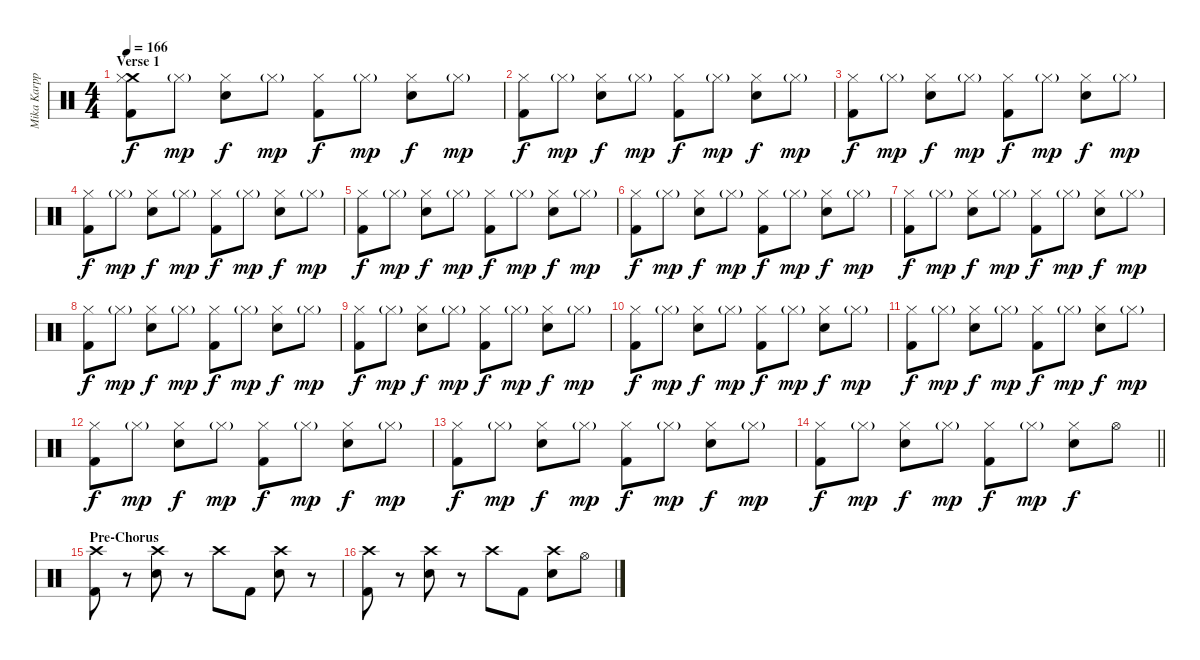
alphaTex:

\track ("Mika Karppinen" "Mika Karpp") {instrument percussion}
\staff {score}
\articulation defaults
\ts (4 4)
\section ("" "Verse 1")
\tempo 166
\clef neutral
\ks c
("Crash medium (hit)" "Hi-Hat (closed)" "Kick (hit) 2").8{dy f} "Hi-Hat (closed)"{g}.8{dy mp} ("Hi-Hat (closed)" "Snare (hit) 2").8{dy f} "Hi-Hat (closed)"{g}.8{dy mp} ("Hi-Hat (closed)" "Kick (hit) 2").8{dy f} "Hi-Hat (closed)"{g}.8{dy mp} ("Hi-Hat (closed)" "Snare (hit) 2").8{dy f} "Hi-Hat (closed)"{g}.8{dy mp} |
("Hi-Hat (closed)" "Kick (hit) 2").8{dy f} "Hi-Hat (closed)"{g}.8{dy mp} ("Hi-Hat (closed)" "Snare (hit) 2").8{dy f} "Hi-Hat (closed)"{g}.8{dy mp} ("Hi-Hat (closed)" "Kick (hit) 2").8{dy f} "Hi-Hat (closed)"{g}.8{dy mp} ("Hi-Hat (closed)" "Snare (hit) 2").8{dy f} "Hi-Hat (closed)"{g}.8{dy mp} |
("Hi-Hat (closed)" "Kick (hit) 2").8{dy f} "Hi-Hat (closed)"{g}.8{dy mp} ("Hi-Hat (closed)" "Snare (hit) 2").8{dy f} "Hi-Hat (closed)"{g}.8{dy mp} ("Hi-Hat (closed)" "Kick (hit) 2").8{dy f} "Hi-Hat (closed)"{g}.8{dy mp} ("Hi-Hat (closed)" "Snare (hit) 2").8{dy f} "Hi-Hat (closed)"{g}.8{dy mp} |
("Hi-Hat (closed)" "Kick (hit) 2").8{dy f} "Hi-Hat (closed)"{g}.8{dy mp} ("Hi-Hat (closed)" "Snare (hit) 2").8{dy f} "Hi-Hat (closed)"{g}.8{dy mp} ("Hi-Hat (closed)" "Kick (hit) 2").8{dy f} "Hi-Hat (closed)"{g}.8{dy mp} ("Hi-Hat (closed)" "Snare (hit) 2").8{dy f} "Hi-Hat (closed)"{g}.8{dy mp} |
("Hi-Hat (closed)" "Kick (hit) 2").8{dy f} "Hi-Hat (closed)"{g}.8{dy mp} ("Hi-Hat (closed)" "Snare (hit) 2").8{dy f} "Hi-Hat (closed)"{g}.8{dy mp} ("Hi-Hat (closed)" "Kick (hit) 2").8{dy f} "Hi-Hat (closed)"{g}.8{dy mp} ("Hi-Hat (closed)" "Snare (hit) 2").8{dy f} "Hi-Hat (closed)"{g}.8{dy mp} |
("Hi-Hat (closed)" "Kick (hit) 2").8{dy f} "Hi-Hat (closed)"{g}.8{dy mp} ("Hi-Hat (closed)" "Snare (hit) 2").8{dy f} "Hi-Hat (closed)"{g}.8{dy mp} ("Hi-Hat (closed)" "Kick (hit) 2").8{dy f} "Hi-Hat (closed)"{g}.8{dy mp} ("Hi-Hat (closed)" "Snare (hit) 2").8{dy f} "Hi-Hat (closed)"{g}.8{dy mp} |
("Hi-Hat (closed)" "Kick (hit) 2").8{dy f} "Hi-Hat (closed)"{g}.8{dy mp} ("Hi-Hat (closed)" "Snare (hit) 2").8{dy f} "Hi-Hat (closed)"{g}.8{dy mp} ("Hi-Hat (closed)" "Kick (hit) 2").8{dy f} "Hi-Hat (closed)"{g}.8{dy mp} ("Hi-Hat (closed)" "Snare (hit) 2").8{dy f} "Hi-Hat (closed)"{g}.8{dy mp} |
("Hi-Hat (closed)" "Kick (hit) 2").8{dy f} "Hi-Hat (closed)"{g}.8{dy mp} ("Hi-Hat (closed)" "Snare (hit) 2").8{dy f} "Hi-Hat (closed)"{g}.8{dy mp} ("Hi-Hat (closed)" "Kick (hit) 2").8{dy f} "Hi-Hat (closed)"{g}.8{dy mp} ("Hi-Hat (closed)" "Snare (hit) 2").8{dy f} "Hi-Hat (closed)"{g}.8{dy mp} |
("Hi-Hat (closed)" "Kick (hit) 2").8{dy f} "Hi-Hat (closed)"{g}.8{dy mp} ("Hi-Hat (closed)" "Snare (hit) 2").8{dy f} "Hi-Hat (closed)"{g}.8{dy mp} ("Hi-Hat (closed)" "Kick (hit) 2").8{dy f} "Hi-Hat (closed)"{g}.8{dy mp} ("Hi-Hat (closed)" "Snare (hit) 2").8{dy f} "Hi-Hat (closed)"{g}.8{dy mp} |
("Hi-Hat (closed)" "Kick (hit) 2").8{dy f} "Hi-Hat (closed)"{g}.8{dy mp} ("Hi-Hat (closed)" "Snare (hit) 2").8{dy f} "Hi-Hat (closed)"{g}.8{dy mp} ("Hi-Hat (closed)" "Kick (hit) 2").8{dy f} "Hi-Hat (closed)"{g}.8{dy mp} ("Hi-Hat (closed)" "Snare (hit) 2").8{dy f} "Hi-Hat (closed)"{g}.8{dy mp} |
("Hi-Hat (closed)" "Kick (hit) 2").8{dy f} "Hi-Hat (closed)"{g}.8{dy mp} ("Hi-Hat (closed)" "Snare (hit) 2").8{dy f} "Hi-Hat (closed)"{g}.8{dy mp} ("Hi-Hat (closed)" "Kick (hit) 2").8{dy f} "Hi-Hat (closed)"{g}.8{dy mp} ("Hi-Hat (closed)" "Snare (hit) 2").8{dy f} "Hi-Hat (closed)"{g}.8{dy mp} |
("Hi-Hat (closed)" "Kick (hit) 2").8{dy f} "Hi-Hat (closed)"{g}.8{dy mp} ("Hi-Hat (closed)" "Snare (hit) 2").8{dy f} "Hi-Hat (closed)"{g}.8{dy mp} ("Hi-Hat (closed)" "Kick (hit) 2").8{dy f} "Hi-Hat (closed)"{g}.8{dy mp} ("Hi-Hat (closed)" "Snare (hit) 2").8{dy f} "Hi-Hat (closed)"{g}.8{dy mp} |
("Hi-Hat (closed)" "Kick (hit) 2").8{dy f} "Hi-Hat (closed)"{g}.8{dy mp} ("Hi-Hat (closed)" "Snare (hit) 2").8{dy f} "Hi-Hat (closed)"{g}.8{dy mp} ("Hi-Hat (closed)" "Kick (hit) 2").8{dy f} "Hi-Hat (closed)"{g}.8{dy mp} ("Hi-Hat (closed)" "Snare (hit) 2").8{dy f} "Hi-Hat (closed)"{g}.8{dy mp} |
\barLineRight lightlight
("Hi-Hat (closed)" "Kick (hit) 2").8{dy f} "Hi-Hat (closed)"{g}.8{dy mp} ("Hi-Hat (closed)" "Snare (hit) 2").8{dy f} "Hi-Hat (closed)"{g}.8{dy mp} ("Hi-Hat (closed)" "Kick (hit) 2").8{dy f} "Hi-Hat (closed)"{g}.8{dy mp} ("Hi-Hat (closed)" "Snare (hit) 2").8{dy f} "Hi-Hat (open)".8 |
\section ("" "Pre-Chorus")
("Crash high (hit)" "Kick (hit) 2").8 r.8 ("Crash high (hit)" "Snare (hit) 2").8 r.8 "Crash high (hit)".8 "Kick (hit) 2".8 ("Crash high (hit)" "Snare (hit) 2").8 r.8 |
("Crash high (hit)" "Kick (hit) 2").8 r.8 ("Crash high (hit)" "Snare (hit) 2").8 r.8 "Crash high (hit)".8 "Kick (hit) 2".8 ("Crash high (hit)" "Snare (hit) 2").8 "Hi-Hat (open)".8
